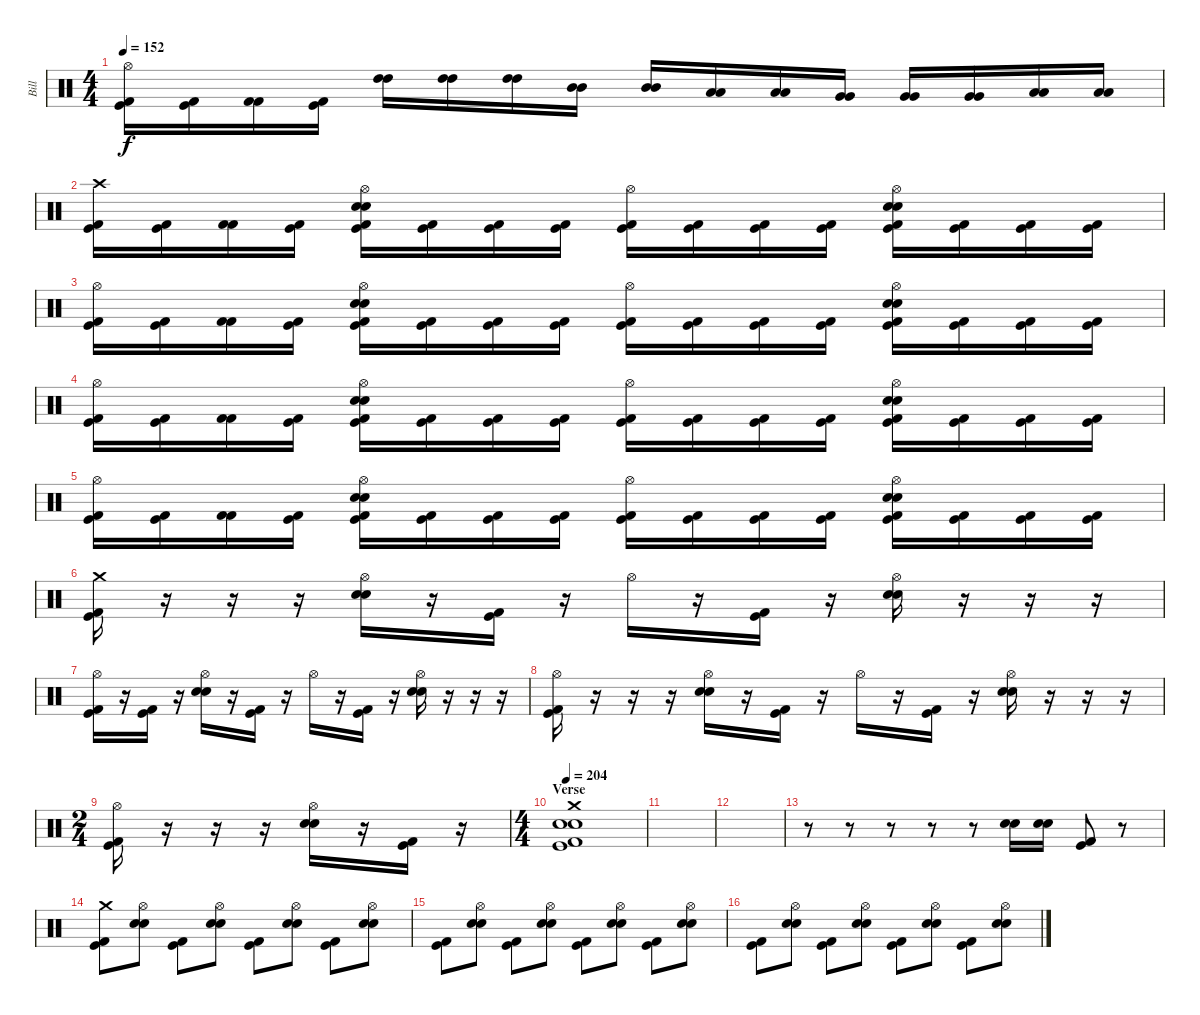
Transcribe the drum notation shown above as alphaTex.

\track ("Bill" "Bill") {instrument percussion}
\staff {score}
\articulation defaults
\ts (4 4)
\tempo 152
\clef neutral
\ks c
("Hi-Hat (open)" "Kick (hit) 2" "Kick (hit)").16{dy f} ("Kick (hit) 2" "Kick (hit)").16 ("Kick (hit) 2" "Kick (hit) 2").16 ("Kick (hit) 2" "Kick (hit)").16 ("High Tom (hit)" "High Tom (hit)").16 ("High Tom (hit)" "High Tom (hit)").16 ("High Tom (hit)" "High Tom (hit)").16 ("Mid Tom (hit)" "Mid Tom (hit)").16 ("Mid Tom (hit)" "Mid Tom (hit)").16 ("Low Tom (hit)" "Low Tom (hit)").16 ("Low Tom (hit)" "Low Tom (hit)").16 ("Very Low Tom (hit)" "Very Low Tom (hit)").16 ("Very Low Tom (hit)" "Very Low Tom (hit)").16 ("Very Low Tom (hit)" "Very Low Tom (hit)").16 ("Low Floor Tom (hit)" "Low Floor Tom (hit)").16 ("Low Floor Tom (hit)" "Low Floor Tom (hit)").16 |
("Crash high (hit)" "Kick (hit) 2" "Kick (hit)").16 ("Kick (hit) 2" "Kick (hit)").16 ("Kick (hit) 2" "Kick (hit) 2").16 ("Kick (hit) 2" "Kick (hit)").16 ("Hi-Hat (open)" "Snare (hit) 2" "Electric Snare (hit)" "Kick (hit) 2" "Kick (hit)").16 ("Kick (hit) 2" "Kick (hit)").16 ("Kick (hit) 2" "Kick (hit)").16 ("Kick (hit) 2" "Kick (hit)").16 ("Hi-Hat (open)" "Kick (hit) 2" "Kick (hit)").16 ("Kick (hit) 2" "Kick (hit)").16 ("Kick (hit) 2" "Kick (hit)").16 ("Kick (hit) 2" "Kick (hit)").16 ("Hi-Hat (open)" "Snare (hit) 2" "Electric Snare (hit)" "Kick (hit) 2" "Kick (hit)").16 ("Kick (hit) 2" "Kick (hit)").16 ("Kick (hit) 2" "Kick (hit)").16 ("Kick (hit) 2" "Kick (hit)").16 |
("Hi-Hat (open)" "Kick (hit) 2" "Kick (hit)").16 ("Kick (hit) 2" "Kick (hit)").16 ("Kick (hit) 2" "Kick (hit) 2").16 ("Kick (hit) 2" "Kick (hit)").16 ("Hi-Hat (open)" "Snare (hit) 2" "Electric Snare (hit)" "Kick (hit) 2" "Kick (hit)").16 ("Kick (hit) 2" "Kick (hit)").16 ("Kick (hit) 2" "Kick (hit)").16 ("Kick (hit) 2" "Kick (hit)").16 ("Hi-Hat (open)" "Kick (hit) 2" "Kick (hit)").16 ("Kick (hit) 2" "Kick (hit)").16 ("Kick (hit) 2" "Kick (hit)").16 ("Kick (hit) 2" "Kick (hit)").16 ("Hi-Hat (open)" "Snare (hit) 2" "Electric Snare (hit)" "Kick (hit) 2" "Kick (hit)").16 ("Kick (hit) 2" "Kick (hit)").16 ("Kick (hit) 2" "Kick (hit)").16 ("Kick (hit) 2" "Kick (hit)").16 |
("Hi-Hat (open)" "Kick (hit) 2" "Kick (hit)").16 ("Kick (hit) 2" "Kick (hit)").16 ("Kick (hit) 2" "Kick (hit) 2").16 ("Kick (hit) 2" "Kick (hit)").16 ("Hi-Hat (open)" "Snare (hit) 2" "Electric Snare (hit)" "Kick (hit) 2" "Kick (hit)").16 ("Kick (hit) 2" "Kick (hit)").16 ("Kick (hit) 2" "Kick (hit)").16 ("Kick (hit) 2" "Kick (hit)").16 ("Hi-Hat (open)" "Kick (hit) 2" "Kick (hit)").16 ("Kick (hit) 2" "Kick (hit)").16 ("Kick (hit) 2" "Kick (hit)").16 ("Kick (hit) 2" "Kick (hit)").16 ("Hi-Hat (open)" "Snare (hit) 2" "Electric Snare (hit)" "Kick (hit) 2" "Kick (hit)").16 ("Kick (hit) 2" "Kick (hit)").16 ("Kick (hit) 2" "Kick (hit)").16 ("Kick (hit) 2" "Kick (hit)").16 |
("Hi-Hat (open)" "Kick (hit) 2" "Kick (hit)").16 ("Kick (hit) 2" "Kick (hit)").16 ("Kick (hit) 2" "Kick (hit) 2").16 ("Kick (hit) 2" "Kick (hit)").16 ("Hi-Hat (open)" "Snare (hit) 2" "Electric Snare (hit)" "Kick (hit) 2" "Kick (hit)").16 ("Kick (hit) 2" "Kick (hit)").16 ("Kick (hit) 2" "Kick (hit)").16 ("Kick (hit) 2" "Kick (hit)").16 ("Hi-Hat (open)" "Kick (hit) 2" "Kick (hit)").16 ("Kick (hit) 2" "Kick (hit)").16 ("Kick (hit) 2" "Kick (hit)").16 ("Kick (hit) 2" "Kick (hit)").16 ("Hi-Hat (open)" "Snare (hit) 2" "Electric Snare (hit)" "Kick (hit) 2" "Kick (hit)").16 ("Kick (hit) 2" "Kick (hit)").16 ("Kick (hit) 2" "Kick (hit)").16 ("Kick (hit) 2" "Kick (hit)").16 |
("Crash medium (hit)" "Kick (hit)" "Kick (hit) 2").16 r.16 r.16 r.16 ("Hi-Hat (open)" "Snare (hit) 2" "Electric Snare (hit)").16 r.16 ("Kick (hit)" "Kick (hit) 2").16 r.16 "Hi-Hat (open)".16 r.16 ("Kick (hit)" "Kick (hit) 2").16 r.16 ("Hi-Hat (open)" "Snare (hit) 2" "Electric Snare (hit)").16 r.16 r.16 r.16 |
("Hi-Hat (open)" "Kick (hit)" "Kick (hit) 2").16 r.16 ("Kick (hit)" "Kick (hit) 2").16 r.16 ("Hi-Hat (open)" "Snare (hit) 2" "Electric Snare (hit)").16 r.16 ("Kick (hit)" "Kick (hit) 2").16 r.16 "Hi-Hat (open)".16 r.16 ("Kick (hit)" "Kick (hit) 2").16 r.16 ("Hi-Hat (open)" "Snare (hit) 2" "Electric Snare (hit)").16 r.16 r.16 r.16 |
("Hi-Hat (open)" "Kick (hit)" "Kick (hit) 2").16 r.16 r.16 r.16 ("Hi-Hat (open)" "Snare (hit) 2" "Electric Snare (hit)").16 r.16 ("Kick (hit)" "Kick (hit) 2").16 r.16 "Hi-Hat (open)".16 r.16 ("Kick (hit)" "Kick (hit) 2").16 r.16 ("Hi-Hat (open)" "Snare (hit) 2" "Electric Snare (hit)").16 r.16 r.16 r.16 |
\ts (2 4)
("Hi-Hat (open)" "Kick (hit)" "Kick (hit) 2").16 r.16 r.16 r.16 ("Hi-Hat (open)" "Snare (hit) 2" "Electric Snare (hit)").16 r.16 ("Kick (hit)" "Kick (hit) 2").16 r.16 |
\ts (4 4)
\section ("" "Verse")
\tempo 204
("Crash medium (hit)" "Snare (hit) 2" "Electric Snare (hit)" "Kick (hit)" "Kick (hit) 2").1 |
|
|
r.8 r.8 r.8 r.8 r.8 ("Snare (hit) 2" "Electric Snare (hit)").16 ("Snare (hit) 2" "Electric Snare (hit)").16 ("Kick (hit)" "Kick (hit) 2").8 r.8 |
("Crash medium (hit)" "Kick (hit)" "Kick (hit) 2").8 ("Hi-Hat (open)" "Snare (hit) 2" "Electric Snare (hit)").8 ("Kick (hit)" "Kick (hit) 2").8 ("Hi-Hat (open)" "Snare (hit) 2" "Electric Snare (hit)").8 ("Kick (hit)" "Kick (hit) 2").8 ("Hi-Hat (open)" "Snare (hit) 2" "Electric Snare (hit)").8 ("Kick (hit)" "Kick (hit) 2").8 ("Hi-Hat (open)" "Snare (hit) 2" "Electric Snare (hit)").8 |
("Kick (hit)" "Kick (hit) 2").8 ("Hi-Hat (open)" "Snare (hit) 2" "Electric Snare (hit)").8 ("Kick (hit)" "Kick (hit) 2").8 ("Hi-Hat (open)" "Snare (hit) 2" "Electric Snare (hit)").8 ("Kick (hit)" "Kick (hit) 2").8 ("Hi-Hat (open)" "Snare (hit) 2" "Electric Snare (hit)").8 ("Kick (hit)" "Kick (hit) 2").8 ("Hi-Hat (open)" "Snare (hit) 2" "Electric Snare (hit)").8 |
("Kick (hit)" "Kick (hit) 2").8 ("Hi-Hat (open)" "Snare (hit) 2" "Electric Snare (hit)").8 ("Kick (hit)" "Kick (hit) 2").8 ("Hi-Hat (open)" "Snare (hit) 2" "Electric Snare (hit)").8 ("Kick (hit)" "Kick (hit) 2").8 ("Hi-Hat (open)" "Snare (hit) 2" "Electric Snare (hit)").8 ("Kick (hit)" "Kick (hit) 2").8 ("Hi-Hat (open)" "Snare (hit) 2" "Electric Snare (hit)").8
